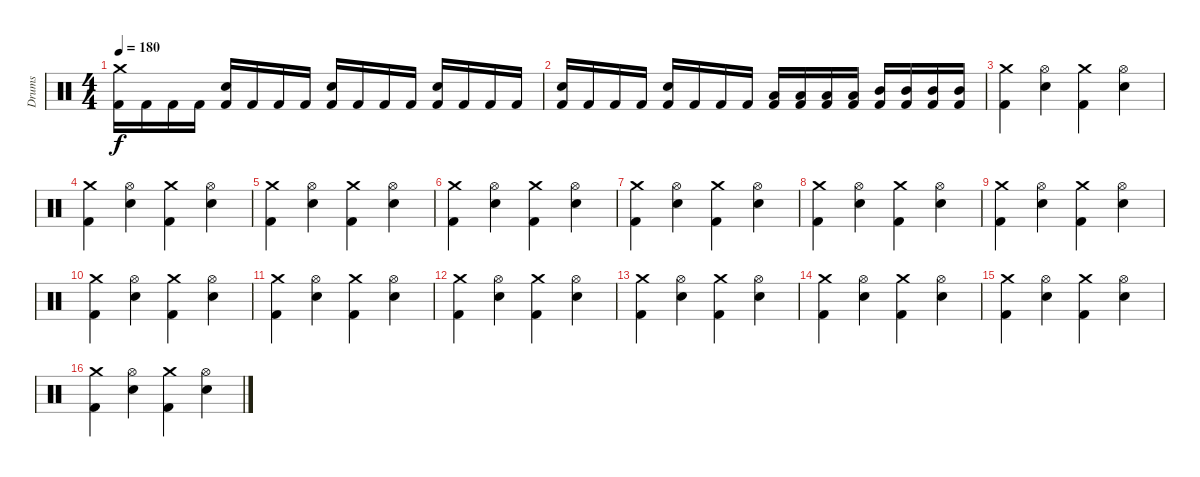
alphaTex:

\track ("Drums" "Drums") {instrument percussion}
\staff {score}
\articulation defaults
\ts (4 4)
\tempo 180
\clef neutral
\ks c
("Crash medium (hit)" "Kick (hit) 2").16{dy f} "Kick (hit) 2".16 "Kick (hit) 2".16 "Kick (hit) 2".16 ("Snare (hit) 2" "Kick (hit) 2").16 "Kick (hit) 2".16 "Kick (hit) 2".16 "Kick (hit) 2".16 ("Snare (hit) 2" "Kick (hit) 2").16 "Kick (hit) 2".16 "Kick (hit) 2".16 "Kick (hit) 2".16 ("Snare (hit) 2" "Kick (hit) 2").16 "Kick (hit) 2".16 "Kick (hit) 2".16 "Kick (hit) 2".16 |
("Snare (hit) 2" "Kick (hit) 2").16 "Kick (hit) 2".16 "Kick (hit) 2".16 "Kick (hit) 2".16 ("Snare (hit) 2" "Kick (hit) 2").16 "Kick (hit) 2".16 "Kick (hit) 2".16 "Kick (hit) 2".16 ("Low Tom (hit)" "Kick (hit) 2").16 ("Low Tom (hit)" "Kick (hit) 2").16 ("Low Tom (hit)" "Kick (hit) 2").16 ("Low Tom (hit)" "Kick (hit) 2").16 ("Mid Tom (hit)" "Kick (hit) 2").16 ("Mid Tom (hit)" "Kick (hit) 2").16 ("Mid Tom (hit)" "Kick (hit) 2").16 ("Mid Tom (hit)" "Kick (hit) 2").16 |
("Crash medium (hit)" "Kick (hit) 2").4 ("Hi-Hat (open)" "Snare (hit) 2").4 ("Crash medium (hit)" "Kick (hit) 2").4 ("Hi-Hat (open)" "Snare (hit) 2").4 |
("Crash medium (hit)" "Kick (hit) 2").4 ("Hi-Hat (open)" "Snare (hit) 2").4 ("Crash medium (hit)" "Kick (hit) 2").4 ("Hi-Hat (open)" "Snare (hit) 2").4 |
("Crash medium (hit)" "Kick (hit) 2").4 ("Hi-Hat (open)" "Snare (hit) 2").4 ("Crash medium (hit)" "Kick (hit) 2").4 ("Hi-Hat (open)" "Snare (hit) 2").4 |
("Crash medium (hit)" "Kick (hit) 2").4 ("Hi-Hat (open)" "Snare (hit) 2").4 ("Crash medium (hit)" "Kick (hit) 2").4 ("Hi-Hat (open)" "Snare (hit) 2").4 |
("Crash medium (hit)" "Kick (hit) 2").4 ("Hi-Hat (open)" "Snare (hit) 2").4 ("Crash medium (hit)" "Kick (hit) 2").4 ("Hi-Hat (open)" "Snare (hit) 2").4 |
("Crash medium (hit)" "Kick (hit) 2").4 ("Hi-Hat (open)" "Snare (hit) 2").4 ("Crash medium (hit)" "Kick (hit) 2").4 ("Hi-Hat (open)" "Snare (hit) 2").4 |
("Crash medium (hit)" "Kick (hit) 2").4 ("Hi-Hat (open)" "Snare (hit) 2").4 ("Crash medium (hit)" "Kick (hit) 2").4 ("Hi-Hat (open)" "Snare (hit) 2").4 |
("Crash medium (hit)" "Kick (hit) 2").4 ("Hi-Hat (open)" "Snare (hit) 2").4 ("Crash medium (hit)" "Kick (hit) 2").4 ("Hi-Hat (open)" "Snare (hit) 2").4 |
("Crash medium (hit)" "Kick (hit) 2").4 ("Hi-Hat (open)" "Snare (hit) 2").4 ("Crash medium (hit)" "Kick (hit) 2").4 ("Hi-Hat (open)" "Snare (hit) 2").4 |
("Crash medium (hit)" "Kick (hit) 2").4 ("Hi-Hat (open)" "Snare (hit) 2").4 ("Crash medium (hit)" "Kick (hit) 2").4 ("Hi-Hat (open)" "Snare (hit) 2").4 |
("Crash medium (hit)" "Kick (hit) 2").4 ("Hi-Hat (open)" "Snare (hit) 2").4 ("Crash medium (hit)" "Kick (hit) 2").4 ("Hi-Hat (open)" "Snare (hit) 2").4 |
("Crash medium (hit)" "Kick (hit) 2").4 ("Hi-Hat (open)" "Snare (hit) 2").4 ("Crash medium (hit)" "Kick (hit) 2").4 ("Hi-Hat (open)" "Snare (hit) 2").4 |
("Crash medium (hit)" "Kick (hit) 2").4 ("Hi-Hat (open)" "Snare (hit) 2").4 ("Crash medium (hit)" "Kick (hit) 2").4 ("Hi-Hat (open)" "Snare (hit) 2").4 |
("Crash medium (hit)" "Kick (hit) 2").4 ("Hi-Hat (open)" "Snare (hit) 2").4 ("Crash medium (hit)" "Kick (hit) 2").4 ("Hi-Hat (open)" "Snare (hit) 2").4
